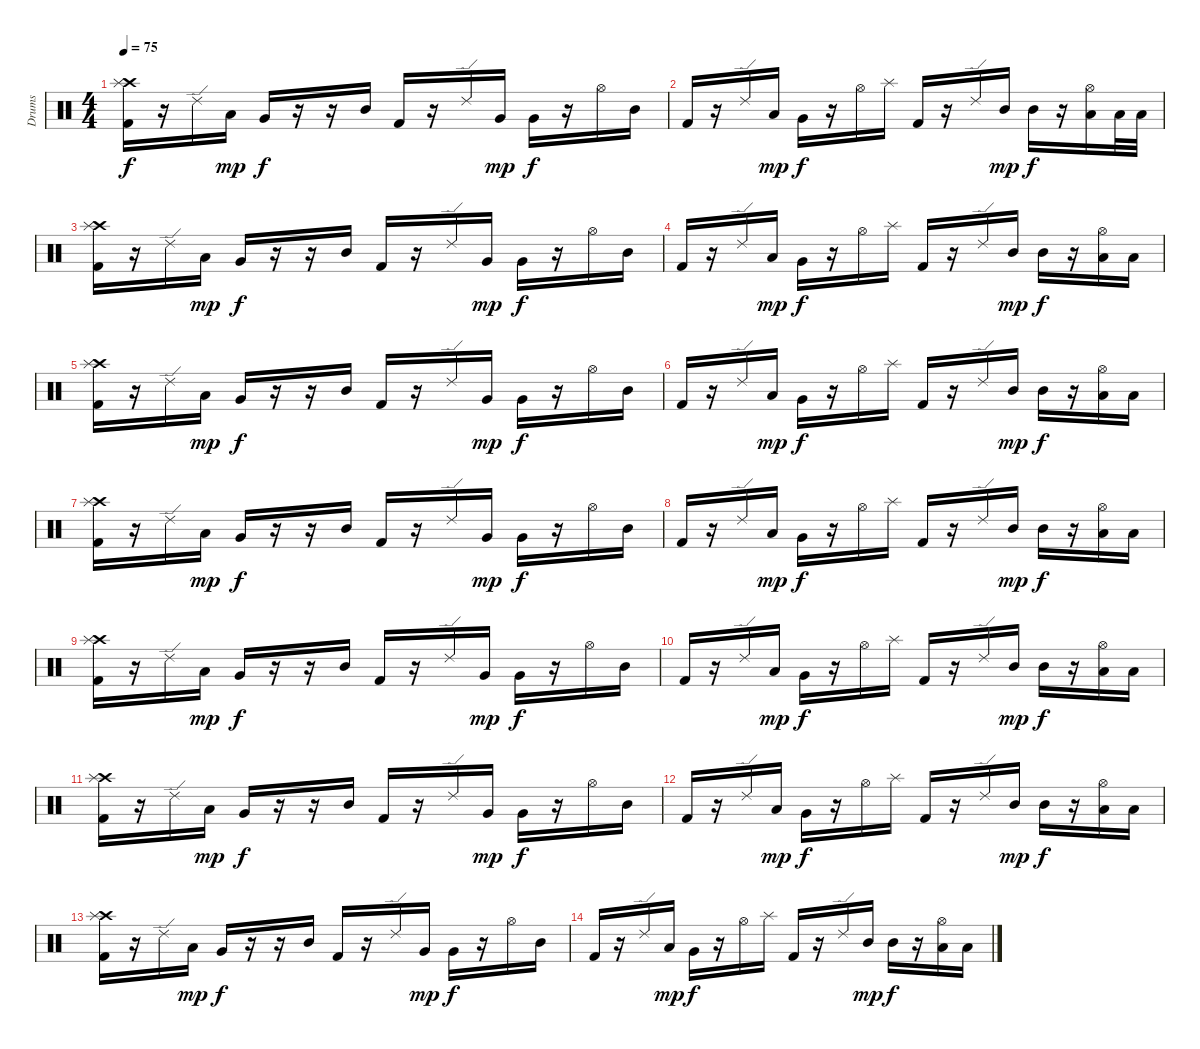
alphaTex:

\track ("Drums" "Drums") {instrument percussion}
\staff {score}
\articulation defaults
\ts (4 4)
\tempo 75
\clef neutral
\ks c
("Kick (hit) 2" "Crash high (hit)" "Splash (hit)").16{dy f} r.16 "Ride (edge) 2".16 "Low Tom (hit)".16{dy mp} "Very Low Tom (hit)".16{dy f} r.16 r.16 "Mid Tom (hit)".16 "Kick (hit) 2".16 r.16 "Ride (edge) 2".16 "Very Low Tom (hit)".16{dy mp} "Very Low Tom (hit)".16{dy f} r.16 "Hi-Hat (open)".16 "Mid Tom (hit)".16 |
"Kick (hit) 2".16 r.16 "Ride (edge) 2".16 "Low Tom (hit)".16{dy mp} "Very Low Tom (hit)".16{dy f} r.16 "Hi-Hat (open)".16 "Splash (hit)".16 "Kick (hit) 2".16 r.16 "Ride (edge) 2".16 "Mid Tom (hit)".16{dy mp} "Mid Tom (hit)".16{dy f} r.16 ("Hi-Hat (open)" "Low Tom (hit)").16 "Low Tom (hit)".32 "Low Tom (hit)".32 |
("Kick (hit) 2" "Crash high (hit)" "Splash (hit)").16 r.16 "Ride (edge) 2".16 "Low Tom (hit)".16{dy mp} "Very Low Tom (hit)".16{dy f} r.16 r.16 "Mid Tom (hit)".16 "Kick (hit) 2".16 r.16 "Ride (edge) 2".16 "Very Low Tom (hit)".16{dy mp} "Very Low Tom (hit)".16{dy f} r.16 "Hi-Hat (open)".16 "Mid Tom (hit)".16 |
"Kick (hit) 2".16 r.16 "Ride (edge) 2".16 "Low Tom (hit)".16{dy mp} "Very Low Tom (hit)".16{dy f} r.16 "Hi-Hat (open)".16 "Splash (hit)".16 "Kick (hit) 2".16 r.16 "Ride (edge) 2".16 "Mid Tom (hit)".16{dy mp} "Mid Tom (hit)".16{dy f} r.16 ("Hi-Hat (open)" "Low Tom (hit)").16 "Low Tom (hit)".16 |
("Kick (hit) 2" "Crash high (hit)" "Splash (hit)").16 r.16 "Ride (edge) 2".16 "Low Tom (hit)".16{dy mp} "Very Low Tom (hit)".16{dy f} r.16 r.16 "Mid Tom (hit)".16 "Kick (hit) 2".16 r.16 "Ride (edge) 2".16 "Very Low Tom (hit)".16{dy mp} "Very Low Tom (hit)".16{dy f} r.16 "Hi-Hat (open)".16 "Mid Tom (hit)".16 |
"Kick (hit) 2".16 r.16 "Ride (edge) 2".16 "Low Tom (hit)".16{dy mp} "Very Low Tom (hit)".16{dy f} r.16 "Hi-Hat (open)".16 "Splash (hit)".16 "Kick (hit) 2".16 r.16 "Ride (edge) 2".16 "Mid Tom (hit)".16{dy mp} "Mid Tom (hit)".16{dy f} r.16 ("Hi-Hat (open)" "Low Tom (hit)").16 "Low Tom (hit)".16 |
("Kick (hit) 2" "Crash high (hit)" "Splash (hit)").16 r.16 "Ride (edge) 2".16 "Low Tom (hit)".16{dy mp} "Very Low Tom (hit)".16{dy f} r.16 r.16 "Mid Tom (hit)".16 "Kick (hit) 2".16 r.16 "Ride (edge) 2".16 "Very Low Tom (hit)".16{dy mp} "Very Low Tom (hit)".16{dy f} r.16 "Hi-Hat (open)".16 "Mid Tom (hit)".16 |
"Kick (hit) 2".16 r.16 "Ride (edge) 2".16 "Low Tom (hit)".16{dy mp} "Very Low Tom (hit)".16{dy f} r.16 "Hi-Hat (open)".16 "Splash (hit)".16 "Kick (hit) 2".16 r.16 "Ride (edge) 2".16 "Mid Tom (hit)".16{dy mp} "Mid Tom (hit)".16{dy f} r.16 ("Hi-Hat (open)" "Low Tom (hit)").16 "Low Tom (hit)".16 |
("Kick (hit) 2" "Crash high (hit)" "Splash (hit)").16 r.16 "Ride (edge) 2".16 "Low Tom (hit)".16{dy mp} "Very Low Tom (hit)".16{dy f} r.16 r.16 "Mid Tom (hit)".16 "Kick (hit) 2".16 r.16 "Ride (edge) 2".16 "Very Low Tom (hit)".16{dy mp} "Very Low Tom (hit)".16{dy f} r.16 "Hi-Hat (open)".16 "Mid Tom (hit)".16 |
"Kick (hit) 2".16 r.16 "Ride (edge) 2".16 "Low Tom (hit)".16{dy mp} "Very Low Tom (hit)".16{dy f} r.16 "Hi-Hat (open)".16 "Splash (hit)".16 "Kick (hit) 2".16 r.16 "Ride (edge) 2".16 "Mid Tom (hit)".16{dy mp} "Mid Tom (hit)".16{dy f} r.16 ("Hi-Hat (open)" "Low Tom (hit)").16 "Low Tom (hit)".16 |
("Kick (hit) 2" "Crash high (hit)" "Splash (hit)").16 r.16 "Ride (edge) 2".16 "Low Tom (hit)".16{dy mp} "Very Low Tom (hit)".16{dy f} r.16 r.16 "Mid Tom (hit)".16 "Kick (hit) 2".16 r.16 "Ride (edge) 2".16 "Very Low Tom (hit)".16{dy mp} "Very Low Tom (hit)".16{dy f} r.16 "Hi-Hat (open)".16 "Mid Tom (hit)".16 |
"Kick (hit) 2".16 r.16 "Ride (edge) 2".16 "Low Tom (hit)".16{dy mp} "Very Low Tom (hit)".16{dy f} r.16 "Hi-Hat (open)".16 "Splash (hit)".16 "Kick (hit) 2".16 r.16 "Ride (edge) 2".16 "Mid Tom (hit)".16{dy mp} "Mid Tom (hit)".16{dy f} r.16 ("Hi-Hat (open)" "Low Tom (hit)").16 "Low Tom (hit)".16 |
("Kick (hit) 2" "Crash high (hit)" "Splash (hit)").16{volume 5} r.16 "Ride (edge) 2".16 "Low Tom (hit)".16{dy mp} "Very Low Tom (hit)".16{dy f} r.16 r.16 "Mid Tom (hit)".16 "Kick (hit) 2".16 r.16 "Ride (edge) 2".16 "Very Low Tom (hit)".16{dy mp} "Very Low Tom (hit)".16{dy f} r.16 "Hi-Hat (open)".16 "Mid Tom (hit)".16 |
"Kick (hit) 2".16 r.16 "Ride (edge) 2".16 "Low Tom (hit)".16{dy mp} "Very Low Tom (hit)".16{dy f} r.16 "Hi-Hat (open)".16 "Splash (hit)".16 "Kick (hit) 2".16 r.16 "Ride (edge) 2".16 "Mid Tom (hit)".16{dy mp} "Mid Tom (hit)".16{dy f} r.16 ("Hi-Hat (open)" "Low Tom (hit)").16 "Low Tom (hit)".16
